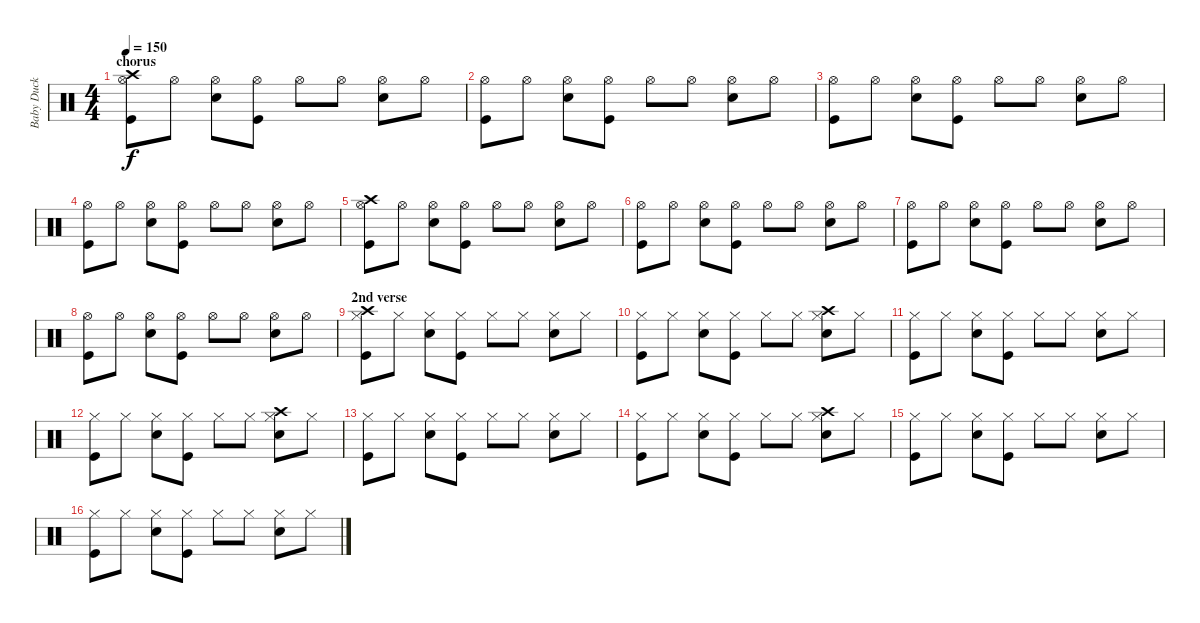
\track ("Baby Duck" "Baby Duck") {instrument percussion}
\staff {score}
\articulation defaults
\ts (4 4)
\section ("" "chorus")
\tempo 150
\clef neutral
\ks c
("Kick (hit)" "Hi-Hat (open)" "Crash high (hit)").8{dy f} "Hi-Hat (open)".8 ("Electric Snare (hit)" "Hi-Hat (open)").8 ("Kick (hit)" "Hi-Hat (open)").8 "Hi-Hat (open)".8 "Hi-Hat (open)".8 ("Electric Snare (hit)" "Hi-Hat (open)").8 "Hi-Hat (open)".8 |
("Kick (hit)" "Hi-Hat (open)").8 "Hi-Hat (open)".8 ("Electric Snare (hit)" "Hi-Hat (open)").8 ("Kick (hit)" "Hi-Hat (open)").8 "Hi-Hat (open)".8 "Hi-Hat (open)".8 ("Electric Snare (hit)" "Hi-Hat (open)").8 "Hi-Hat (open)".8 |
("Kick (hit)" "Hi-Hat (open)").8 "Hi-Hat (open)".8 ("Electric Snare (hit)" "Hi-Hat (open)").8 ("Kick (hit)" "Hi-Hat (open)").8 "Hi-Hat (open)".8 "Hi-Hat (open)".8 ("Electric Snare (hit)" "Hi-Hat (open)").8 "Hi-Hat (open)".8 |
("Kick (hit)" "Hi-Hat (open)").8 "Hi-Hat (open)".8 ("Electric Snare (hit)" "Hi-Hat (open)").8 ("Kick (hit)" "Hi-Hat (open)").8 "Hi-Hat (open)".8 "Hi-Hat (open)".8 ("Electric Snare (hit)" "Hi-Hat (open)").8 "Hi-Hat (open)".8 |
\section ("" "")
("Kick (hit)" "Hi-Hat (open)" "Crash high (hit)").8 "Hi-Hat (open)".8 ("Electric Snare (hit)" "Hi-Hat (open)").8 ("Kick (hit)" "Hi-Hat (open)").8 "Hi-Hat (open)".8 "Hi-Hat (open)".8 ("Electric Snare (hit)" "Hi-Hat (open)").8 "Hi-Hat (open)".8 |
("Kick (hit)" "Hi-Hat (open)").8 "Hi-Hat (open)".8 ("Electric Snare (hit)" "Hi-Hat (open)").8 ("Kick (hit)" "Hi-Hat (open)").8 "Hi-Hat (open)".8 "Hi-Hat (open)".8 ("Electric Snare (hit)" "Hi-Hat (open)").8 "Hi-Hat (open)".8 |
("Kick (hit)" "Hi-Hat (open)").8 "Hi-Hat (open)".8 ("Electric Snare (hit)" "Hi-Hat (open)").8 ("Kick (hit)" "Hi-Hat (open)").8 "Hi-Hat (open)".8 "Hi-Hat (open)".8 ("Electric Snare (hit)" "Hi-Hat (open)").8 "Hi-Hat (open)".8 |
("Kick (hit)" "Hi-Hat (open)").8 "Hi-Hat (open)".8 ("Electric Snare (hit)" "Hi-Hat (open)").8 ("Kick (hit)" "Hi-Hat (open)").8 "Hi-Hat (open)".8 "Hi-Hat (open)".8 ("Electric Snare (hit)" "Hi-Hat (open)").8 "Hi-Hat (open)".8 |
\section ("" "2nd verse")
("Kick (hit)" "Hi-Hat (closed)" "Crash high (hit)").8 "Hi-Hat (closed)".8 ("Electric Snare (hit)" "Hi-Hat (closed)").8 ("Kick (hit)" "Hi-Hat (closed)").8 "Hi-Hat (closed)".8 "Hi-Hat (closed)".8 ("Electric Snare (hit)" "Hi-Hat (closed)").8 "Hi-Hat (closed)".8 |
("Kick (hit)" "Hi-Hat (closed)").8 "Hi-Hat (closed)".8 ("Electric Snare (hit)" "Hi-Hat (closed)").8 ("Kick (hit)" "Hi-Hat (closed)").8 "Hi-Hat (closed)".8 "Hi-Hat (closed)".8 ("Electric Snare (hit)" "Hi-Hat (closed)" "Crash high (hit)").8 "Hi-Hat (closed)".8 |
("Kick (hit)" "Hi-Hat (closed)").8 "Hi-Hat (closed)".8 ("Electric Snare (hit)" "Hi-Hat (closed)").8 ("Kick (hit)" "Hi-Hat (closed)").8 "Hi-Hat (closed)".8 "Hi-Hat (closed)".8 ("Electric Snare (hit)" "Hi-Hat (closed)").8 "Hi-Hat (closed)".8 |
("Kick (hit)" "Hi-Hat (closed)").8 "Hi-Hat (closed)".8 ("Electric Snare (hit)" "Hi-Hat (closed)").8 ("Kick (hit)" "Hi-Hat (closed)").8 "Hi-Hat (closed)".8 "Hi-Hat (closed)".8 ("Electric Snare (hit)" "Hi-Hat (closed)" "Crash high (hit)").8 "Hi-Hat (closed)".8 |
\section ("" "")
("Kick (hit)" "Hi-Hat (closed)").8 "Hi-Hat (closed)".8 ("Electric Snare (hit)" "Hi-Hat (closed)").8 ("Kick (hit)" "Hi-Hat (closed)").8 "Hi-Hat (closed)".8 "Hi-Hat (closed)".8 ("Electric Snare (hit)" "Hi-Hat (closed)").8 "Hi-Hat (closed)".8 |
("Kick (hit)" "Hi-Hat (closed)").8 "Hi-Hat (closed)".8 ("Electric Snare (hit)" "Hi-Hat (closed)").8 ("Kick (hit)" "Hi-Hat (closed)").8 "Hi-Hat (closed)".8 "Hi-Hat (closed)".8 ("Electric Snare (hit)" "Hi-Hat (closed)" "Crash high (hit)").8 "Hi-Hat (closed)".8 |
("Kick (hit)" "Hi-Hat (closed)").8 "Hi-Hat (closed)".8 ("Electric Snare (hit)" "Hi-Hat (closed)").8 ("Kick (hit)" "Hi-Hat (closed)").8 "Hi-Hat (closed)".8 "Hi-Hat (closed)".8 ("Electric Snare (hit)" "Hi-Hat (closed)").8 "Hi-Hat (closed)".8 |
("Kick (hit)" "Hi-Hat (closed)").8 "Hi-Hat (closed)".8 ("Electric Snare (hit)" "Hi-Hat (closed)").8 ("Kick (hit)" "Hi-Hat (closed)").8 "Hi-Hat (closed)".8 "Hi-Hat (closed)".8 ("Electric Snare (hit)" "Hi-Hat (closed)").8 "Hi-Hat (closed)".8
